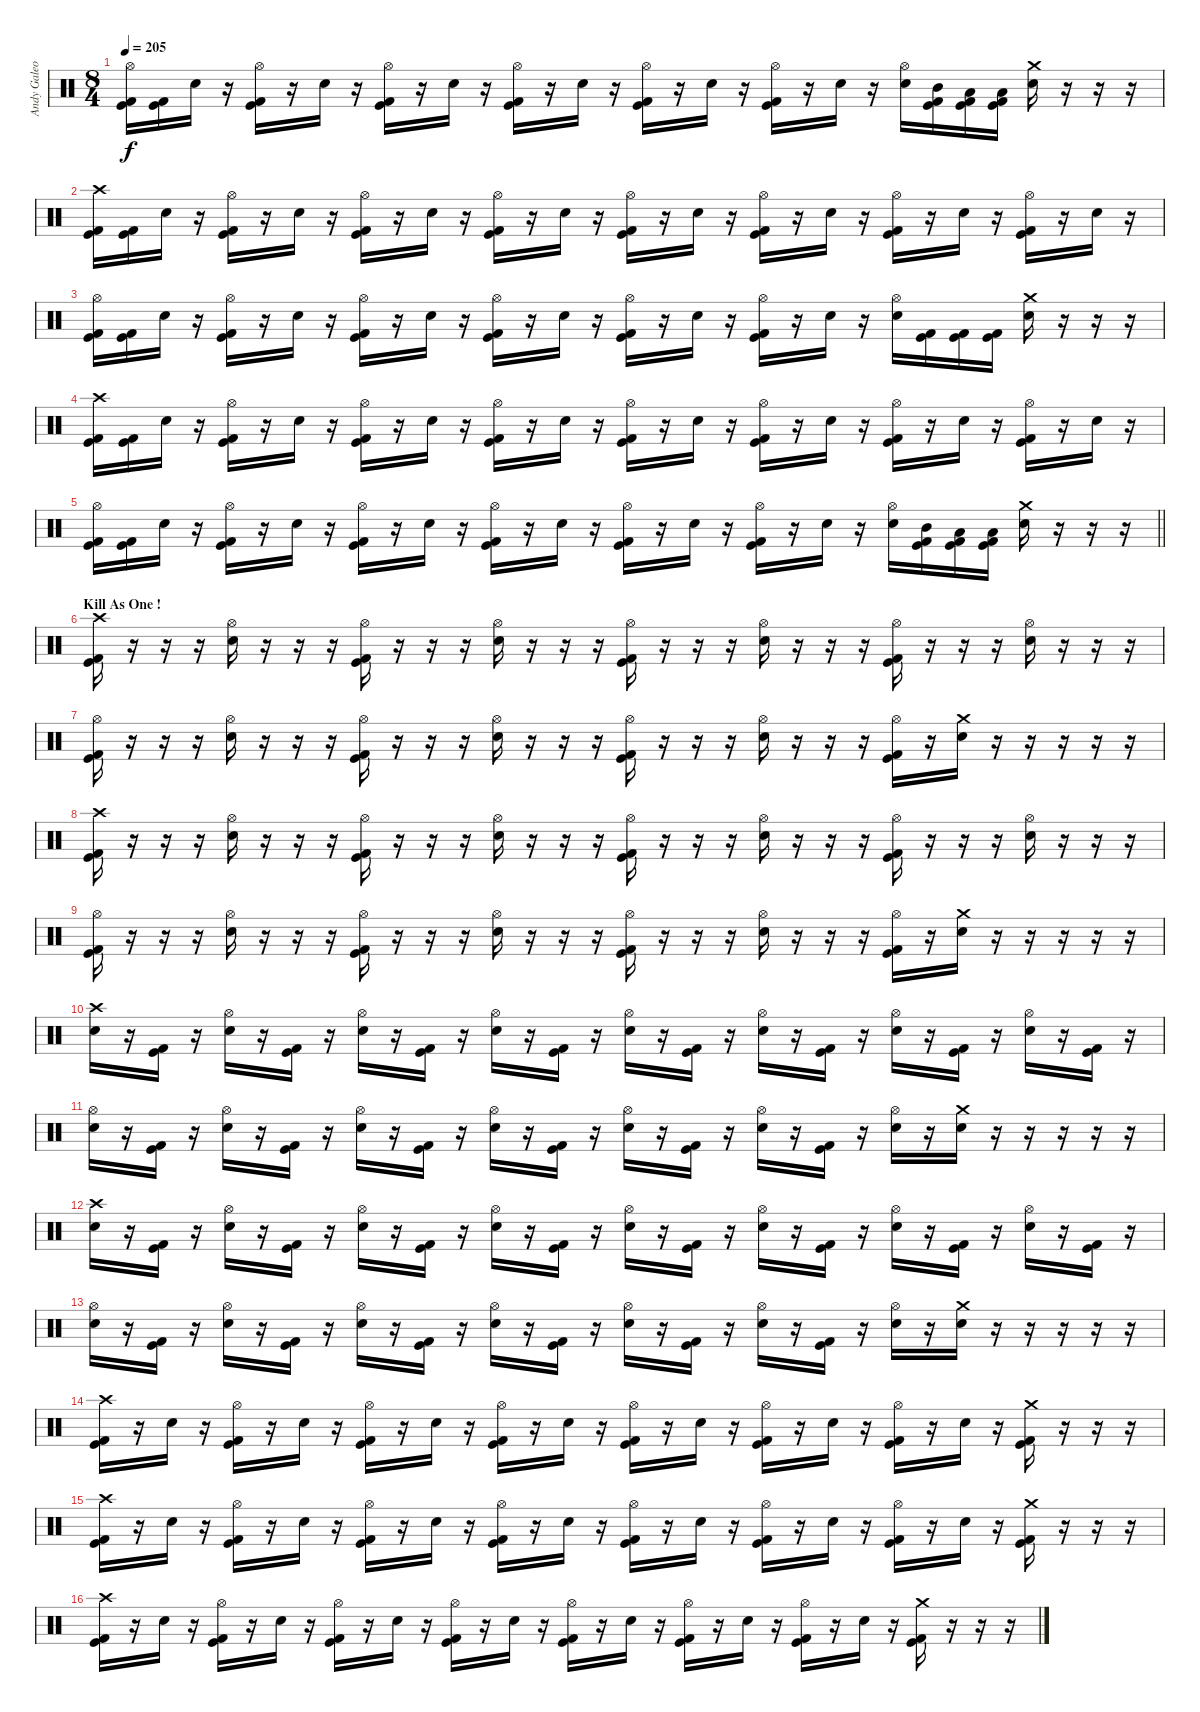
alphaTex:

\track ("Andy Galeon - Drums" "Andy Galeo") {instrument percussion}
\staff {score}
\articulation defaults
\ts (8 4)
\tempo 205
\clef neutral
\ks c
("Hi-Hat (open)" "Kick (hit) 2" "Kick (hit)").16{dy f} ("Kick (hit) 2" "Kick (hit)").16 "Electric Snare (hit)".16 r.16 ("Hi-Hat (open)" "Kick (hit) 2" "Kick (hit)").16 r.16 "Electric Snare (hit)".16 r.16 ("Hi-Hat (open)" "Kick (hit) 2" "Kick (hit)").16 r.16 "Electric Snare (hit)".16 r.16 ("Hi-Hat (open)" "Kick (hit) 2" "Kick (hit)").16 r.16 "Electric Snare (hit)".16 r.16 ("Hi-Hat (open)" "Kick (hit) 2" "Kick (hit)").16 r.16 "Electric Snare (hit)".16 r.16 ("Hi-Hat (open)" "Kick (hit) 2" "Kick (hit)").16 r.16 "Electric Snare (hit)".16 r.16 ("Hi-Hat (open)" "Electric Snare (hit)").16 ("Mid Tom (hit)" "Kick (hit) 2" "Kick (hit)").16 ("Low Tom (hit)" "Kick (hit) 2" "Kick (hit)").16 ("Low Tom (hit)" "Kick (hit) 2" "Kick (hit)").16 ("Crash medium (hit)" "Electric Snare (hit)").16 r.16 r.16 r.16 |
("Crash high (hit)" "Kick (hit) 2" "Kick (hit)").16 ("Kick (hit) 2" "Kick (hit)").16 "Electric Snare (hit)".16 r.16 ("Hi-Hat (open)" "Kick (hit) 2" "Kick (hit)").16 r.16 "Electric Snare (hit)".16 r.16 ("Hi-Hat (open)" "Kick (hit) 2" "Kick (hit)").16 r.16 "Electric Snare (hit)".16 r.16 ("Hi-Hat (open)" "Kick (hit) 2" "Kick (hit)").16 r.16 "Electric Snare (hit)".16 r.16 ("Hi-Hat (open)" "Kick (hit) 2" "Kick (hit)").16 r.16 "Electric Snare (hit)".16 r.16 ("Hi-Hat (open)" "Kick (hit) 2" "Kick (hit)").16 r.16 "Electric Snare (hit)".16 r.16 ("Hi-Hat (open)" "Kick (hit) 2" "Kick (hit)").16 r.16 "Electric Snare (hit)".16 r.16 ("Hi-Hat (open)" "Kick (hit)" "Kick (hit) 2").16 r.16 "Electric Snare (hit)".16 r.16 |
("Hi-Hat (open)" "Kick (hit) 2" "Kick (hit)").16 ("Kick (hit) 2" "Kick (hit)").16 "Electric Snare (hit)".16 r.16 ("Hi-Hat (open)" "Kick (hit) 2" "Kick (hit)").16 r.16 "Electric Snare (hit)".16 r.16 ("Hi-Hat (open)" "Kick (hit) 2" "Kick (hit)").16 r.16 "Electric Snare (hit)".16 r.16 ("Hi-Hat (open)" "Kick (hit) 2" "Kick (hit)").16 r.16 "Electric Snare (hit)".16 r.16 ("Hi-Hat (open)" "Kick (hit) 2" "Kick (hit)").16 r.16 "Electric Snare (hit)".16 r.16 ("Hi-Hat (open)" "Kick (hit) 2" "Kick (hit)").16 r.16 "Electric Snare (hit)".16 r.16 ("Hi-Hat (open)" "Electric Snare (hit)").16 ("Kick (hit) 2" "Kick (hit)").16 ("Kick (hit) 2" "Kick (hit)").16 ("Kick (hit) 2" "Kick (hit)").16 ("Crash medium (hit)" "Electric Snare (hit)").16 r.16 r.16 r.16 |
("Crash high (hit)" "Kick (hit) 2" "Kick (hit)").16 ("Kick (hit) 2" "Kick (hit)").16 "Electric Snare (hit)".16 r.16 ("Hi-Hat (open)" "Kick (hit) 2" "Kick (hit)").16 r.16 "Electric Snare (hit)".16 r.16 ("Hi-Hat (open)" "Kick (hit) 2" "Kick (hit)").16 r.16 "Electric Snare (hit)".16 r.16 ("Hi-Hat (open)" "Kick (hit) 2" "Kick (hit)").16 r.16 "Electric Snare (hit)".16 r.16 ("Hi-Hat (open)" "Kick (hit) 2" "Kick (hit)").16 r.16 "Electric Snare (hit)".16 r.16 ("Hi-Hat (open)" "Kick (hit) 2" "Kick (hit)").16 r.16 "Electric Snare (hit)".16 r.16 ("Hi-Hat (open)" "Kick (hit) 2" "Kick (hit)").16 r.16 "Electric Snare (hit)".16 r.16 ("Hi-Hat (open)" "Kick (hit)" "Kick (hit) 2").16 r.16 "Electric Snare (hit)".16 r.16 |
\barLineRight lightlight
("Hi-Hat (open)" "Kick (hit) 2" "Kick (hit)").16 ("Kick (hit) 2" "Kick (hit)").16 "Electric Snare (hit)".16 r.16 ("Hi-Hat (open)" "Kick (hit) 2" "Kick (hit)").16 r.16 "Electric Snare (hit)".16 r.16 ("Hi-Hat (open)" "Kick (hit) 2" "Kick (hit)").16 r.16 "Electric Snare (hit)".16 r.16 ("Hi-Hat (open)" "Kick (hit) 2" "Kick (hit)").16 r.16 "Electric Snare (hit)".16 r.16 ("Hi-Hat (open)" "Kick (hit) 2" "Kick (hit)").16 r.16 "Electric Snare (hit)".16 r.16 ("Hi-Hat (open)" "Kick (hit) 2" "Kick (hit)").16 r.16 "Electric Snare (hit)".16 r.16 ("Hi-Hat (open)" "Electric Snare (hit)").16 ("Mid Tom (hit)" "Kick (hit) 2" "Kick (hit)").16 ("Low Tom (hit)" "Kick (hit) 2" "Kick (hit)").16 ("Low Tom (hit)" "Kick (hit) 2" "Kick (hit)").16 ("Crash medium (hit)" "Electric Snare (hit)").16 r.16 r.16 r.16 |
\section ("" "Kill As One !")
("Crash high (hit)" "Kick (hit) 2" "Kick (hit)").16 r.16 r.16 r.16 ("Hi-Hat (open)" "Electric Snare (hit)").16 r.16 r.16 r.16 ("Hi-Hat (open)" "Kick (hit) 2" "Kick (hit)").16 r.16 r.16 r.16 ("Hi-Hat (open)" "Electric Snare (hit)").16 r.16 r.16 r.16 ("Hi-Hat (open)" "Kick (hit) 2" "Kick (hit)").16 r.16 r.16 r.16 ("Hi-Hat (open)" "Electric Snare (hit)").16 r.16 r.16 r.16 ("Hi-Hat (open)" "Kick (hit) 2" "Kick (hit)").16 r.16 r.16 r.16 ("Hi-Hat (open)" "Electric Snare (hit)").16 r.16 r.16 r.16 |
("Hi-Hat (open)" "Kick (hit) 2" "Kick (hit)").16 r.16 r.16 r.16 ("Hi-Hat (open)" "Electric Snare (hit)").16 r.16 r.16 r.16 ("Hi-Hat (open)" "Kick (hit) 2" "Kick (hit)").16 r.16 r.16 r.16 ("Hi-Hat (open)" "Electric Snare (hit)").16 r.16 r.16 r.16 ("Hi-Hat (open)" "Kick (hit) 2" "Kick (hit)").16 r.16 r.16 r.16 ("Hi-Hat (open)" "Electric Snare (hit)").16 r.16 r.16 r.16 ("Hi-Hat (open)" "Kick (hit) 2" "Kick (hit)").16 r.16 ("Crash medium (hit)" "Electric Snare (hit)").16 r.16 r.16 r.16 r.16 r.16 |
("Crash high (hit)" "Kick (hit) 2" "Kick (hit)").16 r.16 r.16 r.16 ("Hi-Hat (open)" "Electric Snare (hit)").16 r.16 r.16 r.16 ("Hi-Hat (open)" "Kick (hit) 2" "Kick (hit)").16 r.16 r.16 r.16 ("Hi-Hat (open)" "Electric Snare (hit)").16 r.16 r.16 r.16 ("Hi-Hat (open)" "Kick (hit) 2" "Kick (hit)").16 r.16 r.16 r.16 ("Hi-Hat (open)" "Electric Snare (hit)").16 r.16 r.16 r.16 ("Hi-Hat (open)" "Kick (hit) 2" "Kick (hit)").16 r.16 r.16 r.16 ("Hi-Hat (open)" "Electric Snare (hit)").16 r.16 r.16 r.16 |
("Hi-Hat (open)" "Kick (hit) 2" "Kick (hit)").16 r.16 r.16 r.16 ("Hi-Hat (open)" "Electric Snare (hit)").16 r.16 r.16 r.16 ("Hi-Hat (open)" "Kick (hit) 2" "Kick (hit)").16 r.16 r.16 r.16 ("Hi-Hat (open)" "Electric Snare (hit)").16 r.16 r.16 r.16 ("Hi-Hat (open)" "Kick (hit) 2" "Kick (hit)").16 r.16 r.16 r.16 ("Hi-Hat (open)" "Electric Snare (hit)").16 r.16 r.16 r.16 ("Hi-Hat (open)" "Kick (hit) 2" "Kick (hit)").16 r.16 ("Crash medium (hit)" "Electric Snare (hit)").16 r.16 r.16 r.16 r.16 r.16 |
("Crash high (hit)" "Electric Snare (hit)").16 r.16 ("Kick (hit) 2" "Kick (hit)").16 r.16 ("Hi-Hat (open)" "Electric Snare (hit)").16 r.16 ("Kick (hit) 2" "Kick (hit)").16 r.16 ("Hi-Hat (open)" "Electric Snare (hit)").16 r.16 ("Kick (hit) 2" "Kick (hit)").16 r.16 ("Hi-Hat (open)" "Electric Snare (hit)").16 r.16 ("Kick (hit) 2" "Kick (hit)").16 r.16 ("Hi-Hat (open)" "Electric Snare (hit)").16 r.16 ("Kick (hit) 2" "Kick (hit)").16 r.16 ("Hi-Hat (open)" "Electric Snare (hit)").16 r.16 ("Kick (hit) 2" "Kick (hit)").16 r.16 ("Hi-Hat (open)" "Electric Snare (hit)").16 r.16 ("Kick (hit) 2" "Kick (hit)").16 r.16 ("Hi-Hat (open)" "Electric Snare (hit)").16 r.16 ("Kick (hit) 2" "Kick (hit)").16 r.16 |
("Hi-Hat (open)" "Electric Snare (hit)").16 r.16 ("Kick (hit) 2" "Kick (hit)").16 r.16 ("Hi-Hat (open)" "Electric Snare (hit)").16 r.16 ("Kick (hit) 2" "Kick (hit)").16 r.16 ("Hi-Hat (open)" "Electric Snare (hit)").16 r.16 ("Kick (hit) 2" "Kick (hit)").16 r.16 ("Hi-Hat (open)" "Electric Snare (hit)").16 r.16 ("Kick (hit) 2" "Kick (hit)").16 r.16 ("Hi-Hat (open)" "Electric Snare (hit)").16 r.16 ("Kick (hit) 2" "Kick (hit)").16 r.16 ("Hi-Hat (open)" "Electric Snare (hit)").16 r.16 ("Kick (hit) 2" "Kick (hit)").16 r.16 ("Hi-Hat (open)" "Electric Snare (hit)").16 r.16 ("Crash medium (hit)" "Electric Snare (hit)").16 r.16 r.16 r.16 r.16 r.16 |
("Crash high (hit)" "Electric Snare (hit)").16 r.16 ("Kick (hit) 2" "Kick (hit)").16 r.16 ("Hi-Hat (open)" "Electric Snare (hit)").16 r.16 ("Kick (hit) 2" "Kick (hit)").16 r.16 ("Hi-Hat (open)" "Electric Snare (hit)").16 r.16 ("Kick (hit) 2" "Kick (hit)").16 r.16 ("Hi-Hat (open)" "Electric Snare (hit)").16 r.16 ("Kick (hit) 2" "Kick (hit)").16 r.16 ("Hi-Hat (open)" "Electric Snare (hit)").16 r.16 ("Kick (hit) 2" "Kick (hit)").16 r.16 ("Hi-Hat (open)" "Electric Snare (hit)").16 r.16 ("Kick (hit) 2" "Kick (hit)").16 r.16 ("Hi-Hat (open)" "Electric Snare (hit)").16 r.16 ("Kick (hit) 2" "Kick (hit)").16 r.16 ("Hi-Hat (open)" "Electric Snare (hit)").16 r.16 ("Kick (hit) 2" "Kick (hit)").16 r.16 |
("Hi-Hat (open)" "Electric Snare (hit)").16 r.16 ("Kick (hit) 2" "Kick (hit)").16 r.16 ("Hi-Hat (open)" "Electric Snare (hit)").16 r.16 ("Kick (hit) 2" "Kick (hit)").16 r.16 ("Hi-Hat (open)" "Electric Snare (hit)").16 r.16 ("Kick (hit) 2" "Kick (hit)").16 r.16 ("Hi-Hat (open)" "Electric Snare (hit)").16 r.16 ("Kick (hit) 2" "Kick (hit)").16 r.16 ("Hi-Hat (open)" "Electric Snare (hit)").16 r.16 ("Kick (hit) 2" "Kick (hit)").16 r.16 ("Hi-Hat (open)" "Electric Snare (hit)").16 r.16 ("Kick (hit) 2" "Kick (hit)").16 r.16 ("Hi-Hat (open)" "Electric Snare (hit)").16 r.16 ("Crash medium (hit)" "Electric Snare (hit)").16 r.16 r.16 r.16 r.16 r.16 |
("Crash high (hit)" "Kick (hit) 2" "Kick (hit)").16 r.16 "Electric Snare (hit)".16 r.16 ("Hi-Hat (open)" "Kick (hit) 2" "Kick (hit)").16 r.16 "Electric Snare (hit)".16 r.16 ("Hi-Hat (open)" "Kick (hit) 2" "Kick (hit)").16 r.16 "Electric Snare (hit)".16 r.16 ("Hi-Hat (open)" "Kick (hit) 2" "Kick (hit)").16 r.16 "Electric Snare (hit)".16 r.16 ("Hi-Hat (open)" "Kick (hit) 2" "Kick (hit)").16 r.16 "Electric Snare (hit)".16 r.16 ("Hi-Hat (open)" "Kick (hit) 2" "Kick (hit)").16 r.16 "Electric Snare (hit)".16 r.16 ("Hi-Hat (open)" "Kick (hit) 2" "Kick (hit)").16 r.16 "Electric Snare (hit)".16 r.16 ("Crash medium (hit)" "Kick (hit)" "Kick (hit) 2").16 r.16 r.16 r.16 |
("Crash high (hit)" "Kick (hit) 2" "Kick (hit)").16 r.16 "Electric Snare (hit)".16 r.16 ("Hi-Hat (open)" "Kick (hit) 2" "Kick (hit)").16 r.16 "Electric Snare (hit)".16 r.16 ("Hi-Hat (open)" "Kick (hit) 2" "Kick (hit)").16 r.16 "Electric Snare (hit)".16 r.16 ("Hi-Hat (open)" "Kick (hit) 2" "Kick (hit)").16 r.16 "Electric Snare (hit)".16 r.16 ("Hi-Hat (open)" "Kick (hit) 2" "Kick (hit)").16 r.16 "Electric Snare (hit)".16 r.16 ("Hi-Hat (open)" "Kick (hit) 2" "Kick (hit)").16 r.16 "Electric Snare (hit)".16 r.16 ("Hi-Hat (open)" "Kick (hit) 2" "Kick (hit)").16 r.16 "Electric Snare (hit)".16 r.16 ("Crash medium (hit)" "Kick (hit)" "Kick (hit) 2").16 r.16 r.16 r.16 |
("Crash high (hit)" "Kick (hit) 2" "Kick (hit)").16 r.16 "Electric Snare (hit)".16 r.16 ("Hi-Hat (open)" "Kick (hit) 2" "Kick (hit)").16 r.16 "Electric Snare (hit)".16 r.16 ("Hi-Hat (open)" "Kick (hit) 2" "Kick (hit)").16 r.16 "Electric Snare (hit)".16 r.16 ("Hi-Hat (open)" "Kick (hit) 2" "Kick (hit)").16 r.16 "Electric Snare (hit)".16 r.16 ("Hi-Hat (open)" "Kick (hit) 2" "Kick (hit)").16 r.16 "Electric Snare (hit)".16 r.16 ("Hi-Hat (open)" "Kick (hit) 2" "Kick (hit)").16 r.16 "Electric Snare (hit)".16 r.16 ("Hi-Hat (open)" "Kick (hit) 2" "Kick (hit)").16 r.16 "Electric Snare (hit)".16 r.16 ("Crash medium (hit)" "Kick (hit)" "Kick (hit) 2").16 r.16 r.16 r.16
